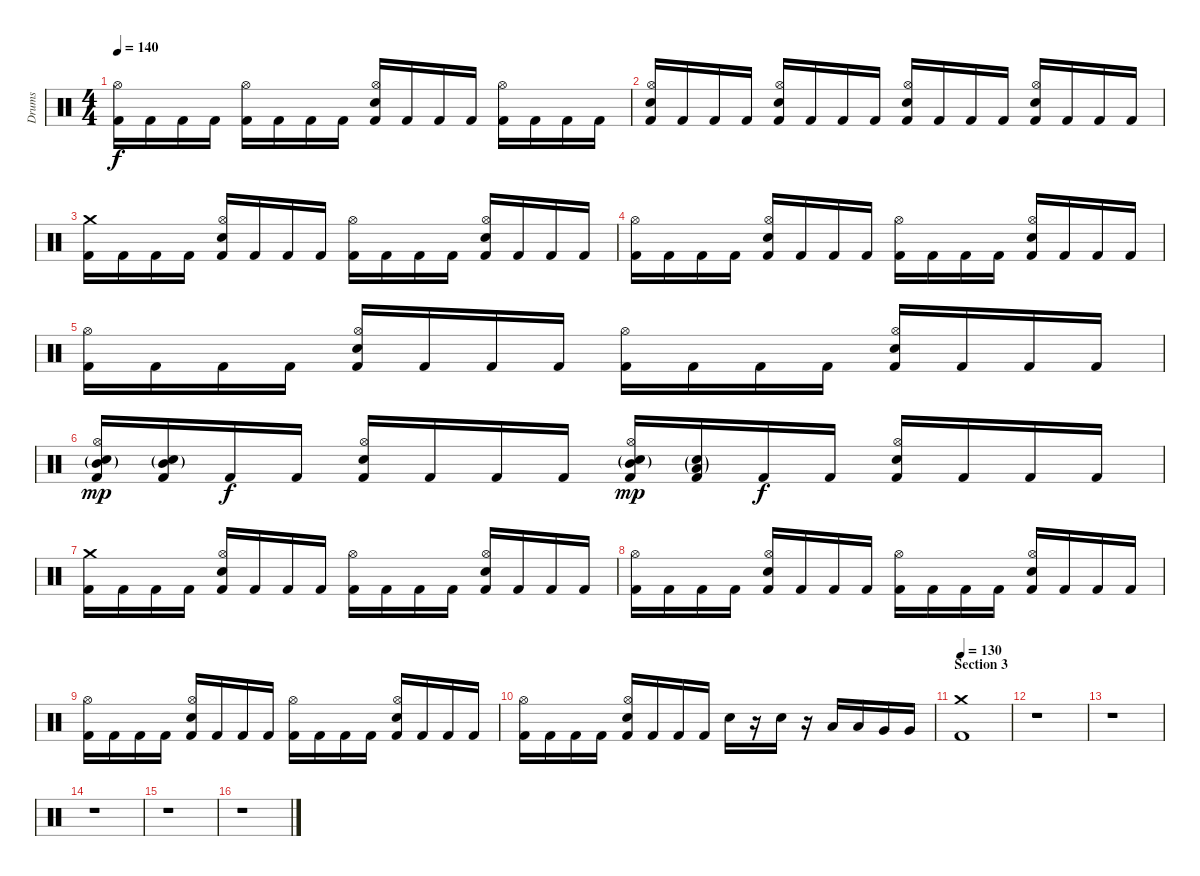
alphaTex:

\track ("Drums" "Drums") {instrument percussion}
\staff {score}
\articulation defaults
\ts (4 4)
\tempo 140
\clef neutral
\ks c
("Kick (hit) 2" "Hi-Hat (open)").16{dy f} "Kick (hit) 2".16 "Kick (hit) 2".16 "Kick (hit) 2".16 ("Kick (hit) 2" "Hi-Hat (open)").16 "Kick (hit) 2".16 "Kick (hit) 2".16 "Kick (hit) 2".16 ("Kick (hit) 2" "Electric Snare (hit)" "Hi-Hat (open)").16 "Kick (hit) 2".16 "Kick (hit) 2".16 "Kick (hit) 2".16 ("Kick (hit) 2" "Hi-Hat (open)").16 "Kick (hit) 2".16 "Kick (hit) 2".16 "Kick (hit) 2".16 |
("Kick (hit) 2" "Electric Snare (hit)" "Hi-Hat (open)").16 "Kick (hit) 2".16 "Kick (hit) 2".16 "Kick (hit) 2".16 ("Kick (hit) 2" "Electric Snare (hit)" "Hi-Hat (open)").16 "Kick (hit) 2".16 "Kick (hit) 2".16 "Kick (hit) 2".16 ("Kick (hit) 2" "Electric Snare (hit)" "Hi-Hat (open)").16 "Kick (hit) 2".16 "Kick (hit) 2".16 "Kick (hit) 2".16 ("Kick (hit) 2" "Electric Snare (hit)" "Hi-Hat (open)").16 "Kick (hit) 2".16 "Kick (hit) 2".16 "Kick (hit) 2".16 |
("Kick (hit) 2" "Crash medium (hit)").16 "Kick (hit) 2".16 "Kick (hit) 2".16 "Kick (hit) 2".16 ("Kick (hit) 2" "Electric Snare (hit)" "Hi-Hat (open)").16 "Kick (hit) 2".16 "Kick (hit) 2".16 "Kick (hit) 2".16 ("Kick (hit) 2" "Hi-Hat (open)").16 "Kick (hit) 2".16 "Kick (hit) 2".16 "Kick (hit) 2".16 ("Kick (hit) 2" "Electric Snare (hit)" "Hi-Hat (open)").16 "Kick (hit) 2".16 "Kick (hit) 2".16 "Kick (hit) 2".16 |
("Kick (hit) 2" "Hi-Hat (open)").16 "Kick (hit) 2".16 "Kick (hit) 2".16 "Kick (hit) 2".16 ("Kick (hit) 2" "Electric Snare (hit)" "Hi-Hat (open)").16 "Kick (hit) 2".16 "Kick (hit) 2".16 "Kick (hit) 2".16 ("Kick (hit) 2" "Hi-Hat (open)").16 "Kick (hit) 2".16 "Kick (hit) 2".16 "Kick (hit) 2".16 ("Kick (hit) 2" "Electric Snare (hit)" "Hi-Hat (open)").16 "Kick (hit) 2".16 "Kick (hit) 2".16 "Kick (hit) 2".16 |
("Kick (hit) 2" "Hi-Hat (open)").16 "Kick (hit) 2".16 "Kick (hit) 2".16 "Kick (hit) 2".16 ("Kick (hit) 2" "Electric Snare (hit)" "Hi-Hat (open)").16 "Kick (hit) 2".16 "Kick (hit) 2".16 "Kick (hit) 2".16 ("Kick (hit) 2" "Hi-Hat (open)").16 "Kick (hit) 2".16 "Kick (hit) 2".16 "Kick (hit) 2".16 ("Kick (hit) 2" "Electric Snare (hit)" "Hi-Hat (open)").16 "Kick (hit) 2".16 "Kick (hit) 2".16 "Kick (hit) 2".16 |
("Kick (hit) 2" "Electric Snare (hit)"{g} "Mid Tom (hit)"{g} "Hi-Hat (open)").16{dy mp} ("Kick (hit) 2" "Electric Snare (hit)"{g} "Mid Tom (hit)"{g}).16 "Kick (hit) 2".16{dy f} "Kick (hit) 2".16 ("Kick (hit) 2" "Electric Snare (hit)" "Hi-Hat (open)").16 "Kick (hit) 2".16 "Kick (hit) 2".16 "Kick (hit) 2".16 ("Kick (hit) 2" "Electric Snare (hit)"{g} "Mid Tom (hit)"{g} "Hi-Hat (open)").16{dy mp} ("Kick (hit) 2" "Electric Snare (hit)"{g} "Low Tom (hit)"{g}).16 "Kick (hit) 2".16{dy f} "Kick (hit) 2".16 ("Kick (hit) 2" "Electric Snare (hit)" "Hi-Hat (open)").16 "Kick (hit) 2".16 "Kick (hit) 2".16 "Kick (hit) 2".16 |
("Kick (hit) 2" "Crash medium (hit)").16 "Kick (hit) 2".16 "Kick (hit) 2".16 "Kick (hit) 2".16 ("Kick (hit) 2" "Electric Snare (hit)" "Hi-Hat (open)").16 "Kick (hit) 2".16 "Kick (hit) 2".16 "Kick (hit) 2".16 ("Kick (hit) 2" "Hi-Hat (open)").16 "Kick (hit) 2".16 "Kick (hit) 2".16 "Kick (hit) 2".16 ("Kick (hit) 2" "Electric Snare (hit)" "Hi-Hat (open)").16 "Kick (hit) 2".16 "Kick (hit) 2".16 "Kick (hit) 2".16 |
("Kick (hit) 2" "Hi-Hat (open)").16 "Kick (hit) 2".16 "Kick (hit) 2".16 "Kick (hit) 2".16 ("Kick (hit) 2" "Electric Snare (hit)" "Hi-Hat (open)").16 "Kick (hit) 2".16 "Kick (hit) 2".16 "Kick (hit) 2".16 ("Kick (hit) 2" "Hi-Hat (open)").16 "Kick (hit) 2".16 "Kick (hit) 2".16 "Kick (hit) 2".16 ("Kick (hit) 2" "Electric Snare (hit)" "Hi-Hat (open)").16 "Kick (hit) 2".16 "Kick (hit) 2".16 "Kick (hit) 2".16 |
("Kick (hit) 2" "Hi-Hat (open)").16 "Kick (hit) 2".16 "Kick (hit) 2".16 "Kick (hit) 2".16 ("Kick (hit) 2" "Electric Snare (hit)" "Hi-Hat (open)").16 "Kick (hit) 2".16 "Kick (hit) 2".16 "Kick (hit) 2".16 ("Kick (hit) 2" "Hi-Hat (open)").16 "Kick (hit) 2".16 "Kick (hit) 2".16 "Kick (hit) 2".16 ("Kick (hit) 2" "Electric Snare (hit)" "Hi-Hat (open)").16 "Kick (hit) 2".16 "Kick (hit) 2".16 "Kick (hit) 2".16 |
("Kick (hit) 2" "Hi-Hat (open)").16 "Kick (hit) 2".16 "Kick (hit) 2".16 "Kick (hit) 2".16 ("Kick (hit) 2" "Electric Snare (hit)" "Hi-Hat (open)").16 "Kick (hit) 2".16 "Kick (hit) 2".16 "Kick (hit) 2".16 "Electric Snare (hit)".16 r.16 "Electric Snare (hit)".16 r.16 "Low Tom (hit)".16 "Low Tom (hit)".16 "Very Low Tom (hit)".16 "Very Low Tom (hit)".16 |
\section ("" "Section 3")
\tempo 130
("Kick (hit) 2" "Crash medium (hit)").1 |
r.1 |
r.1 |
r.1 |
r.1 |
r.1
